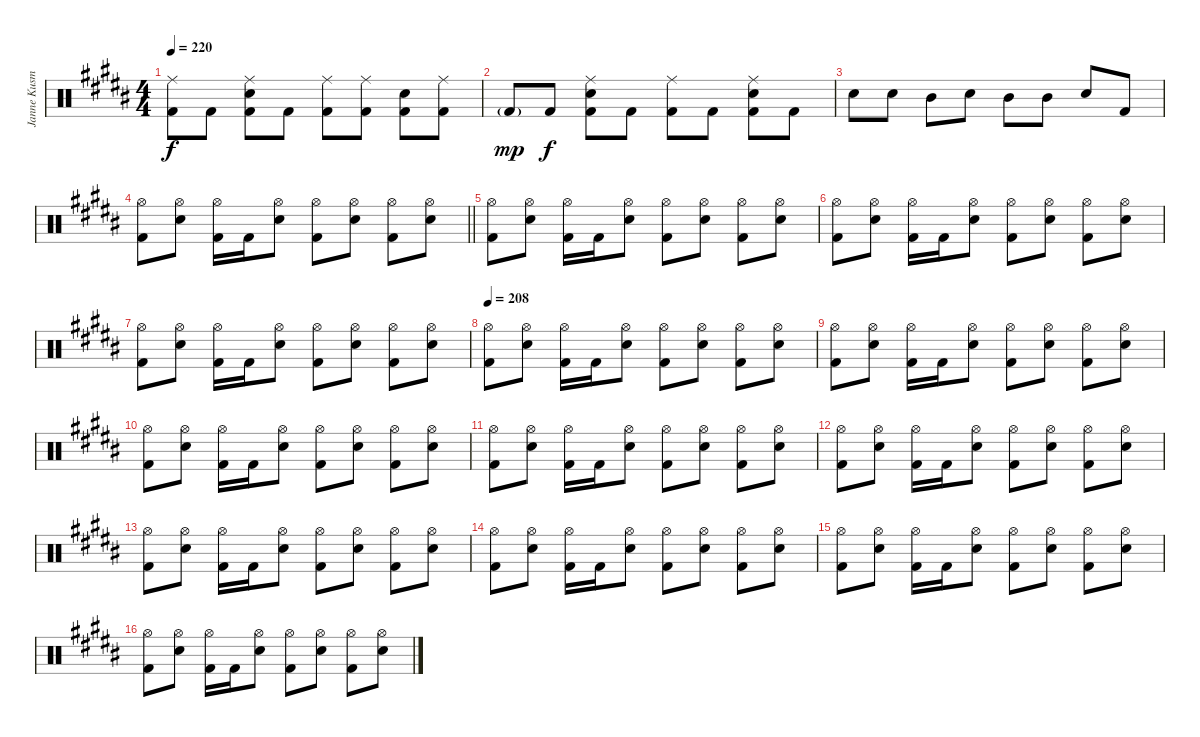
\track ("Janne Kusmin" "Janne Kusm") {instrument percussion}
\staff {score}
\articulation defaults
\ts (4 4)
\tempo 220
\clef neutral
\ks b
("Ride (middle)" "Kick (hit) 2").8{dy f} "Kick (hit) 2".8 ("Ride (middle)" "Electric Snare (hit)" "Kick (hit) 2").8 "Kick (hit) 2".8 ("Ride (middle)" "Kick (hit) 2").8 ("Ride (middle)" "Kick (hit) 2").8 ("Electric Snare (hit)" "Kick (hit) 2").8 ("Ride (middle)" "Kick (hit) 2").8 |
\ks g#minor "Kick (hit) 2"{g}.8{dy mp} "Kick (hit) 2".8{dy f}
("Ride (middle)" "Electric Snare (hit)" "Kick (hit) 2").8 "Kick (hit) 2".8 ("Ride (middle)" "Kick (hit) 2").8 "Kick (hit) 2".8 ("Ride (middle)" "Electric Snare (hit)" "Kick (hit) 2").8 "Kick (hit) 2".8 |
\ks b "Electric Snare (hit)".8 "Electric Snare (hit)".8 "Mid Tom (hit)".8 "Electric Snare (hit)".8 "Mid Tom (hit)".8 "Mid Tom (hit)".8 "Electric Snare (hit)".8 "Kick (hit) 2".8
|
\barLineRight lightlight
("Hi-Hat (open)" "Kick (hit) 2").8 ("Hi-Hat (open)" "Electric Snare (hit)").8 ("Hi-Hat (open)" "Kick (hit) 2").16 "Kick (hit) 2".16 ("Hi-Hat (open)" "Electric Snare (hit)").8 ("Hi-Hat (open)" "Kick (hit) 2").8 ("Hi-Hat (open)" "Electric Snare (hit)").8 ("Hi-Hat (open)" "Kick (hit) 2").8 ("Hi-Hat (open)" "Electric Snare (hit)").8 |
("Hi-Hat (open)" "Kick (hit) 2").8 ("Hi-Hat (open)" "Electric Snare (hit)").8 ("Hi-Hat (open)" "Kick (hit) 2").16 "Kick (hit) 2".16 ("Hi-Hat (open)" "Electric Snare (hit)").8 ("Hi-Hat (open)" "Kick (hit) 2").8 ("Hi-Hat (open)" "Electric Snare (hit)").8 ("Hi-Hat (open)" "Kick (hit) 2").8 ("Hi-Hat (open)" "Electric Snare (hit)").8 |
("Hi-Hat (open)" "Kick (hit) 2").8 ("Hi-Hat (open)" "Electric Snare (hit)").8 ("Hi-Hat (open)" "Kick (hit) 2").16 "Kick (hit) 2".16 ("Hi-Hat (open)" "Electric Snare (hit)").8 ("Hi-Hat (open)" "Kick (hit) 2").8 ("Hi-Hat (open)" "Electric Snare (hit)").8 ("Hi-Hat (open)" "Kick (hit) 2").8 ("Hi-Hat (open)" "Electric Snare (hit)").8 |
("Hi-Hat (open)" "Kick (hit) 2").8 ("Hi-Hat (open)" "Electric Snare (hit)").8 ("Hi-Hat (open)" "Kick (hit) 2").16 "Kick (hit) 2".16 ("Hi-Hat (open)" "Electric Snare (hit)").8 ("Hi-Hat (open)" "Kick (hit) 2").8 ("Hi-Hat (open)" "Electric Snare (hit)").8 ("Hi-Hat (open)" "Kick (hit) 2").8 ("Hi-Hat (open)" "Electric Snare (hit)").8 |
\tempo 208
("Hi-Hat (open)" "Kick (hit) 2").8 ("Hi-Hat (open)" "Electric Snare (hit)").8 ("Hi-Hat (open)" "Kick (hit) 2").16 "Kick (hit) 2".16 ("Hi-Hat (open)" "Electric Snare (hit)").8 ("Hi-Hat (open)" "Kick (hit) 2").8 ("Hi-Hat (open)" "Electric Snare (hit)").8 ("Hi-Hat (open)" "Kick (hit) 2").8 ("Hi-Hat (open)" "Electric Snare (hit)").8 |
("Hi-Hat (open)" "Kick (hit) 2").8 ("Hi-Hat (open)" "Electric Snare (hit)").8 ("Hi-Hat (open)" "Kick (hit) 2").16 "Kick (hit) 2".16 ("Hi-Hat (open)" "Electric Snare (hit)").8 ("Hi-Hat (open)" "Kick (hit) 2").8 ("Hi-Hat (open)" "Electric Snare (hit)").8 ("Hi-Hat (open)" "Kick (hit) 2").8 ("Hi-Hat (open)" "Electric Snare (hit)").8 |
("Hi-Hat (open)" "Kick (hit) 2").8 ("Hi-Hat (open)" "Electric Snare (hit)").8 ("Hi-Hat (open)" "Kick (hit) 2").16 "Kick (hit) 2".16 ("Hi-Hat (open)" "Electric Snare (hit)").8 ("Hi-Hat (open)" "Kick (hit) 2").8 ("Hi-Hat (open)" "Electric Snare (hit)").8 ("Hi-Hat (open)" "Kick (hit) 2").8 ("Hi-Hat (open)" "Electric Snare (hit)").8 |
("Hi-Hat (open)" "Kick (hit) 2").8 ("Hi-Hat (open)" "Electric Snare (hit)").8 ("Hi-Hat (open)" "Kick (hit) 2").16 "Kick (hit) 2".16 ("Hi-Hat (open)" "Electric Snare (hit)").8 ("Hi-Hat (open)" "Kick (hit) 2").8 ("Hi-Hat (open)" "Electric Snare (hit)").8 ("Hi-Hat (open)" "Kick (hit) 2").8 ("Hi-Hat (open)" "Electric Snare (hit)").8 |
("Hi-Hat (open)" "Kick (hit) 2").8 ("Hi-Hat (open)" "Electric Snare (hit)").8 ("Hi-Hat (open)" "Kick (hit) 2").16 "Kick (hit) 2".16 ("Hi-Hat (open)" "Electric Snare (hit)").8 ("Hi-Hat (open)" "Kick (hit) 2").8 ("Hi-Hat (open)" "Electric Snare (hit)").8 ("Hi-Hat (open)" "Kick (hit) 2").8 ("Hi-Hat (open)" "Electric Snare (hit)").8 |
("Hi-Hat (open)" "Kick (hit) 2").8 ("Hi-Hat (open)" "Electric Snare (hit)").8 ("Hi-Hat (open)" "Kick (hit) 2").16 "Kick (hit) 2".16 ("Hi-Hat (open)" "Electric Snare (hit)").8 ("Hi-Hat (open)" "Kick (hit) 2").8 ("Hi-Hat (open)" "Electric Snare (hit)").8 ("Hi-Hat (open)" "Kick (hit) 2").8 ("Hi-Hat (open)" "Electric Snare (hit)").8 |
("Hi-Hat (open)" "Kick (hit) 2").8 ("Hi-Hat (open)" "Electric Snare (hit)").8 ("Hi-Hat (open)" "Kick (hit) 2").16 "Kick (hit) 2".16 ("Hi-Hat (open)" "Electric Snare (hit)").8 ("Hi-Hat (open)" "Kick (hit) 2").8 ("Hi-Hat (open)" "Electric Snare (hit)").8 ("Hi-Hat (open)" "Kick (hit) 2").8 ("Hi-Hat (open)" "Electric Snare (hit)").8 |
("Hi-Hat (open)" "Kick (hit) 2").8 ("Hi-Hat (open)" "Electric Snare (hit)").8 ("Hi-Hat (open)" "Kick (hit) 2").16 "Kick (hit) 2".16 ("Hi-Hat (open)" "Electric Snare (hit)").8 ("Hi-Hat (open)" "Kick (hit) 2").8 ("Hi-Hat (open)" "Electric Snare (hit)").8 ("Hi-Hat (open)" "Kick (hit) 2").8 ("Hi-Hat (open)" "Electric Snare (hit)").8 |
("Hi-Hat (open)" "Kick (hit) 2").8 ("Hi-Hat (open)" "Electric Snare (hit)").8 ("Hi-Hat (open)" "Kick (hit) 2").16 "Kick (hit) 2".16 ("Hi-Hat (open)" "Electric Snare (hit)").8 ("Hi-Hat (open)" "Kick (hit) 2").8 ("Hi-Hat (open)" "Electric Snare (hit)").8 ("Hi-Hat (open)" "Kick (hit) 2").8 ("Hi-Hat (open)" "Electric Snare (hit)").8
